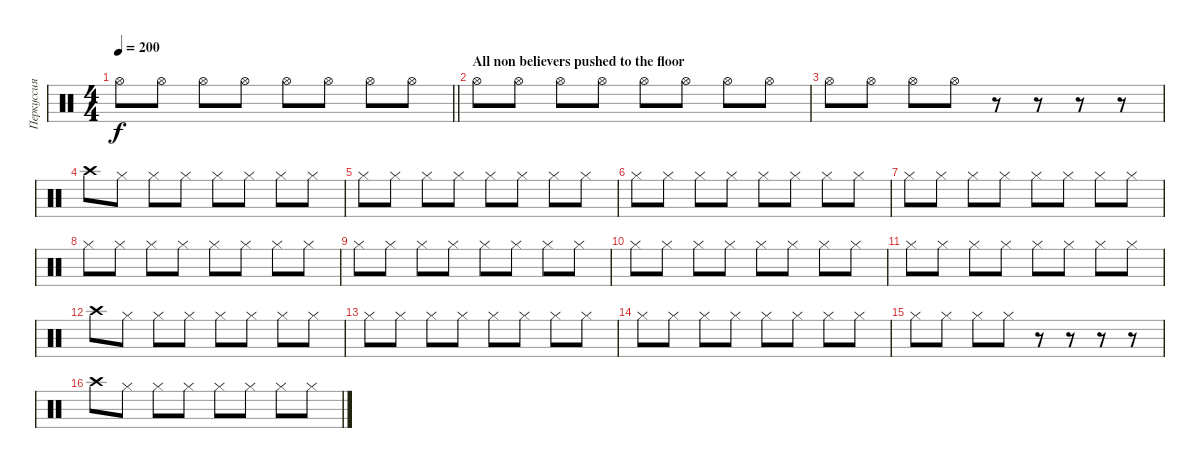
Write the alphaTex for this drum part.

\track ("Перкуссия" "Перкуссия") {instrument percussion}
\staff {score}
\articulation defaults
\ts (4 4)
\tempo 200
\clef neutral
\barLineRight lightlight
\ks c "Hi-Hat (open)".8{dy f} "Hi-Hat (open)".8 "Hi-Hat (open)".8 "Hi-Hat (open)".8 "Hi-Hat (open)".8 "Hi-Hat (open)".8 "Hi-Hat (open)".8 "Hi-Hat (open)".8
|
\section ("" "All non believers pushed to the floor")
"Hi-Hat (open)".8 "Hi-Hat (open)".8 "Hi-Hat (open)".8 "Hi-Hat (open)".8 "Hi-Hat (open)".8 "Hi-Hat (open)".8 "Hi-Hat (open)".8 "Hi-Hat (open)".8 |
"Hi-Hat (open)".8 "Hi-Hat (open)".8 "Hi-Hat (open)".8 "Hi-Hat (open)".8 r.8 r.8 r.8 r.8 |
"Crash high (hit)".8 "Hi-Hat (closed)".8 "Hi-Hat (closed)".8 "Hi-Hat (closed)".8 "Hi-Hat (closed)".8 "Hi-Hat (closed)".8 "Hi-Hat (closed)".8 "Hi-Hat (closed)".8 |
"Hi-Hat (closed)".8 "Hi-Hat (closed)".8 "Hi-Hat (closed)".8 "Hi-Hat (closed)".8 "Hi-Hat (closed)".8 "Hi-Hat (closed)".8 "Hi-Hat (closed)".8 "Hi-Hat (closed)".8 |
"Hi-Hat (closed)".8 "Hi-Hat (closed)".8 "Hi-Hat (closed)".8 "Hi-Hat (closed)".8 "Hi-Hat (closed)".8 "Hi-Hat (closed)".8 "Hi-Hat (closed)".8 "Hi-Hat (closed)".8 |
"Hi-Hat (closed)".8 "Hi-Hat (closed)".8 "Hi-Hat (closed)".8 "Hi-Hat (closed)".8 "Hi-Hat (closed)".8 "Hi-Hat (closed)".8 "Hi-Hat (closed)".8 "Hi-Hat (closed)".8 |
"Hi-Hat (closed)".8 "Hi-Hat (closed)".8 "Hi-Hat (closed)".8 "Hi-Hat (closed)".8 "Hi-Hat (closed)".8 "Hi-Hat (closed)".8 "Hi-Hat (closed)".8 "Hi-Hat (closed)".8 |
"Hi-Hat (closed)".8 "Hi-Hat (closed)".8 "Hi-Hat (closed)".8 "Hi-Hat (closed)".8 "Hi-Hat (closed)".8 "Hi-Hat (closed)".8 "Hi-Hat (closed)".8 "Hi-Hat (closed)".8 |
"Hi-Hat (closed)".8 "Hi-Hat (closed)".8 "Hi-Hat (closed)".8 "Hi-Hat (closed)".8 "Hi-Hat (closed)".8 "Hi-Hat (closed)".8 "Hi-Hat (closed)".8 "Hi-Hat (closed)".8 |
"Hi-Hat (closed)".8 "Hi-Hat (closed)".8 "Hi-Hat (closed)".8 "Hi-Hat (closed)".8 "Hi-Hat (closed)".8 "Hi-Hat (closed)".8 "Hi-Hat (closed)".8 "Hi-Hat (closed)".8 |
"Crash high (hit)".8 "Hi-Hat (closed)".8 "Hi-Hat (closed)".8 "Hi-Hat (closed)".8 "Hi-Hat (closed)".8 "Hi-Hat (closed)".8 "Hi-Hat (closed)".8 "Hi-Hat (closed)".8 |
"Hi-Hat (closed)".8 "Hi-Hat (closed)".8 "Hi-Hat (closed)".8 "Hi-Hat (closed)".8 "Hi-Hat (closed)".8 "Hi-Hat (closed)".8 "Hi-Hat (closed)".8 "Hi-Hat (closed)".8 |
"Hi-Hat (closed)".8 "Hi-Hat (closed)".8 "Hi-Hat (closed)".8 "Hi-Hat (closed)".8 "Hi-Hat (closed)".8 "Hi-Hat (closed)".8 "Hi-Hat (closed)".8 "Hi-Hat (closed)".8 |
"Hi-Hat (closed)".8 "Hi-Hat (closed)".8 "Hi-Hat (closed)".8 "Hi-Hat (closed)".8 r.8 r.8 r.8 r.8 |
"Crash high (hit)".8 "Hi-Hat (closed)".8 "Hi-Hat (closed)".8 "Hi-Hat (closed)".8 "Hi-Hat (closed)".8 "Hi-Hat (closed)".8 "Hi-Hat (closed)".8 "Hi-Hat (closed)".8
